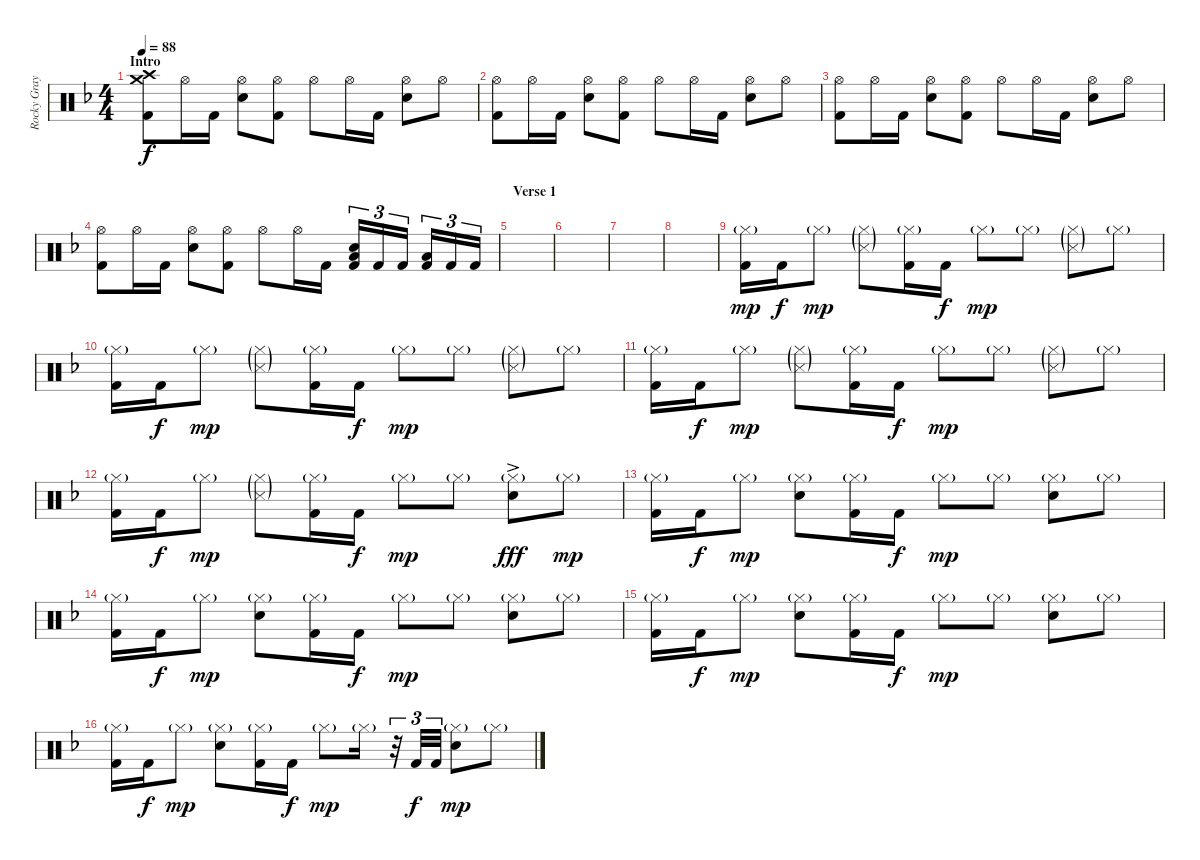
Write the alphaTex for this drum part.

\track ("Rocky Gray" "Rocky Gray") {instrument percussion}
\staff {score}
\articulation defaults
\ts (4 4)
\section ("" "Intro")
\tempo 88
\clef neutral
\ks f
("Crash high (hit)" "Crash medium (hit)" "Kick (hit) 2").8{dy f} "Hi-Hat (open)".16 "Kick (hit) 2".16 ("Hi-Hat (open)" "Snare (hit) 2").8 ("Hi-Hat (open)" "Kick (hit) 2").8 "Hi-Hat (open)".8 "Hi-Hat (open)".16 "Kick (hit) 2".16 ("Hi-Hat (open)" "Snare (hit) 2").8 "Hi-Hat (open)".8 |
("Hi-Hat (open)" "Kick (hit) 2").8 "Hi-Hat (open)".16 "Kick (hit) 2".16 ("Hi-Hat (open)" "Snare (hit) 2").8 ("Hi-Hat (open)" "Kick (hit) 2").8 "Hi-Hat (open)".8 "Hi-Hat (open)".16 "Kick (hit) 2".16 ("Hi-Hat (open)" "Snare (hit) 2").8 "Hi-Hat (open)".8 |
("Hi-Hat (open)" "Kick (hit) 2").8 "Hi-Hat (open)".16 "Kick (hit) 2".16 ("Hi-Hat (open)" "Snare (hit) 2").8 ("Hi-Hat (open)" "Kick (hit) 2").8 "Hi-Hat (open)".8 "Hi-Hat (open)".16 "Kick (hit) 2".16 ("Hi-Hat (open)" "Snare (hit) 2").8 "Hi-Hat (open)".8 |
("Hi-Hat (open)" "Kick (hit) 2").8 "Hi-Hat (open)".16 "Kick (hit) 2".16 ("Hi-Hat (open)" "Snare (hit) 2").8 ("Hi-Hat (open)" "Kick (hit) 2").8 "Hi-Hat (open)".8 "Hi-Hat (open)".16 "Kick (hit) 2".16 ("Snare (hit) 2" "Low Floor Tom (hit)" "Kick (hit) 2").16{tu (3 2)} "Kick (hit) 2".16{tu (3 2)} "Kick (hit) 2".16{tu (3 2)} ("Low Floor Tom (hit)" "Kick (hit) 2").16{tu (3 2)} "Kick (hit) 2".16{tu (3 2)} "Kick (hit) 2".16{tu (3 2)} |
\section ("" "Verse 1")
|
|
|
|
("Hi-Hat (closed)"{g} "Kick (hit) 2").16{dy mp} "Kick (hit) 2".16{dy f} "Hi-Hat (closed)"{g}.8{dy mp} ("Hi-Hat (closed)"{g} "Snare (side stick) 3"{g}).8 ("Hi-Hat (closed)"{g} "Kick (hit) 2").16 "Kick (hit) 2".16{dy f} "Hi-Hat (closed)"{g}.8{dy mp} "Hi-Hat (closed)"{g}.8 ("Hi-Hat (closed)"{g} "Snare (side stick) 3"{g}).8 "Hi-Hat (closed)"{g}.8 |
("Hi-Hat (closed)"{g} "Kick (hit) 2").16 "Kick (hit) 2".16{dy f} "Hi-Hat (closed)"{g}.8{dy mp} ("Hi-Hat (closed)"{g} "Snare (side stick) 3"{g}).8 ("Hi-Hat (closed)"{g} "Kick (hit) 2").16 "Kick (hit) 2".16{dy f} "Hi-Hat (closed)"{g}.8{dy mp} "Hi-Hat (closed)"{g}.8 ("Hi-Hat (closed)"{g} "Snare (side stick) 3"{g}).8 "Hi-Hat (closed)"{g}.8 |
("Hi-Hat (closed)"{g} "Kick (hit) 2").16 "Kick (hit) 2".16{dy f} "Hi-Hat (closed)"{g}.8{dy mp} ("Hi-Hat (closed)"{g} "Snare (side stick) 3"{g}).8 ("Hi-Hat (closed)"{g} "Kick (hit) 2").16 "Kick (hit) 2".16{dy f} "Hi-Hat (closed)"{g}.8{dy mp} "Hi-Hat (closed)"{g}.8 ("Hi-Hat (closed)"{g} "Snare (side stick) 3"{g}).8 "Hi-Hat (closed)"{g}.8 |
("Hi-Hat (closed)"{g} "Kick (hit) 2").16 "Kick (hit) 2".16{dy f} "Hi-Hat (closed)"{g}.8{dy mp} ("Hi-Hat (closed)"{g} "Snare (side stick) 3"{g}).8 ("Hi-Hat (closed)"{g} "Kick (hit) 2").16 "Kick (hit) 2".16{dy f} "Hi-Hat (closed)"{g}.8{dy mp} "Hi-Hat (closed)"{g}.8 ("Hi-Hat (closed)"{g} "Snare (hit) 2"{ac}).8{dy fff} "Hi-Hat (closed)"{g}.8{dy mp} |
("Hi-Hat (closed)"{g} "Kick (hit) 2").16 "Kick (hit) 2".16{dy f} "Hi-Hat (closed)"{g}.8{dy mp} ("Hi-Hat (closed)"{g} "Snare (hit) 2").8 ("Hi-Hat (closed)"{g} "Kick (hit) 2").16 "Kick (hit) 2".16{dy f} "Hi-Hat (closed)"{g}.8{dy mp} "Hi-Hat (closed)"{g}.8 ("Hi-Hat (closed)"{g} "Snare (hit) 2").8 "Hi-Hat (closed)"{g}.8 |
("Hi-Hat (closed)"{g} "Kick (hit) 2").16 "Kick (hit) 2".16{dy f} "Hi-Hat (closed)"{g}.8{dy mp} ("Hi-Hat (closed)"{g} "Snare (hit) 2").8 ("Hi-Hat (closed)"{g} "Kick (hit) 2").16 "Kick (hit) 2".16{dy f} "Hi-Hat (closed)"{g}.8{dy mp} "Hi-Hat (closed)"{g}.8 ("Hi-Hat (closed)"{g} "Snare (hit) 2").8 "Hi-Hat (closed)"{g}.8 |
("Hi-Hat (closed)"{g} "Kick (hit) 2").16 "Kick (hit) 2".16{dy f} "Hi-Hat (closed)"{g}.8{dy mp} ("Hi-Hat (closed)"{g} "Snare (hit) 2").8 ("Hi-Hat (closed)"{g} "Kick (hit) 2").16 "Kick (hit) 2".16{dy f} "Hi-Hat (closed)"{g}.8{dy mp} "Hi-Hat (closed)"{g}.8 ("Hi-Hat (closed)"{g} "Snare (hit) 2").8 "Hi-Hat (closed)"{g}.8 |
("Hi-Hat (closed)"{g} "Kick (hit) 2").16 "Kick (hit) 2".16{dy f} "Hi-Hat (closed)"{g}.8{dy mp} ("Hi-Hat (closed)"{g} "Snare (hit) 2").8 ("Hi-Hat (closed)"{g} "Kick (hit) 2").16 "Kick (hit) 2".16{dy f} "Hi-Hat (closed)"{g}.8{dy mp} "Hi-Hat (closed)"{g}.16 r.32{tu (3 2)} "Kick (hit) 2".32{tu (3 2) dy f} "Kick (hit) 2".32{tu (3 2)} ("Hi-Hat (closed)"{g} "Snare (hit) 2").8{dy mp} "Hi-Hat (closed)"{g}.8
